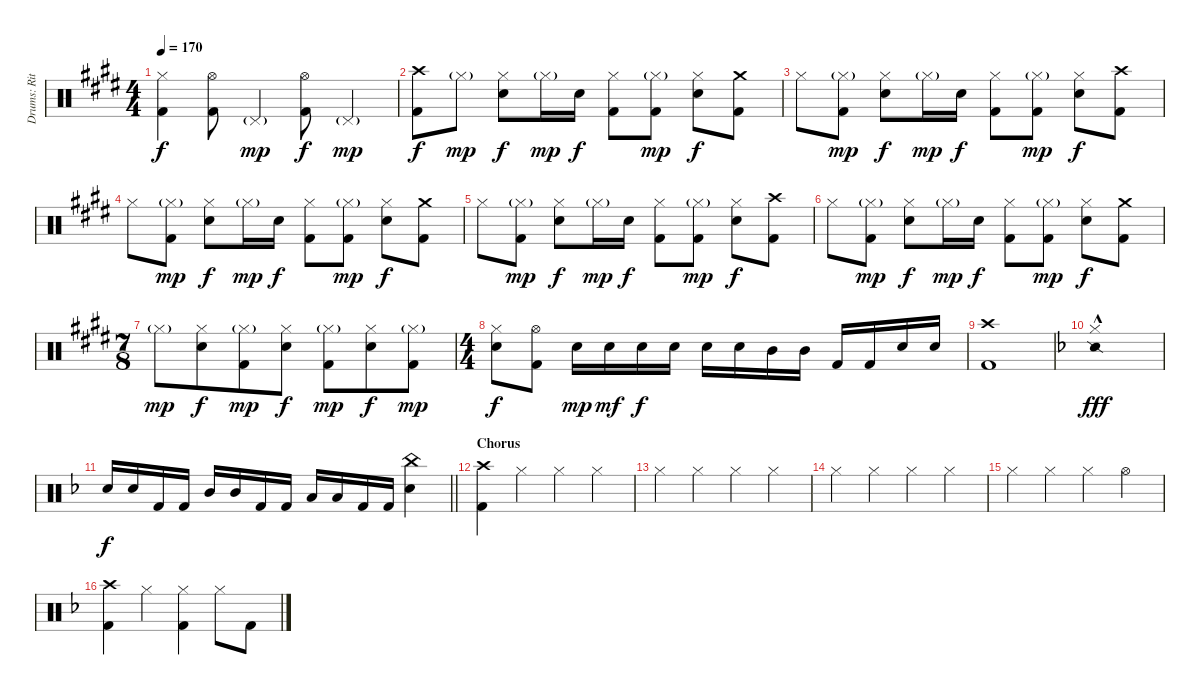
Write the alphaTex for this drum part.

\track ("Drums: Ritsu Tainaka" "Drums: Rit") {instrument percussion}
\staff {score}
\articulation defaults
\ts (4 4)
\tempo 170
\clef neutral
\ks e
("Hi-Hat (closed)" "Kick (hit) 2").4{dy f} ("Hi-Hat (open)" "Kick (hit) 2").8 "Pedal Hi-Hat (hit)"{g}.4{dy mp} ("Hi-Hat (open)" "Kick (hit) 2").8{dy f} "Pedal Hi-Hat (hit)"{g}.4{dy mp} |
("Crash high (hit)" "Kick (hit) 2").8{dy f} "Hi-Hat (closed)"{g}.8{dy mp} ("Hi-Hat (closed)" "Electric Snare (hit)").8{dy f} "Hi-Hat (closed)"{g}.16{dy mp} "Electric Snare (hit)".16{dy f} ("Hi-Hat (closed)" "Kick (hit) 2").8 ("Hi-Hat (closed)"{g} "Kick (hit) 2").8{dy mp} ("Hi-Hat (closed)" "Electric Snare (hit)").8{dy f} ("Crash medium (hit)" "Kick (hit) 2").8 |
"Hi-Hat (closed)".8 ("Hi-Hat (closed)"{g} "Kick (hit) 2").8{dy mp} ("Hi-Hat (closed)" "Electric Snare (hit)").8{dy f} "Hi-Hat (closed)"{g}.16{dy mp} "Electric Snare (hit)".16{dy f} ("Hi-Hat (closed)" "Kick (hit) 2").8 ("Hi-Hat (closed)"{g} "Kick (hit) 2").8{dy mp} ("Hi-Hat (closed)" "Electric Snare (hit)").8{dy f} ("Crash high (hit)" "Kick (hit) 2").8 |
"Hi-Hat (closed)".8 ("Hi-Hat (closed)"{g} "Kick (hit) 2").8{dy mp} ("Hi-Hat (closed)" "Electric Snare (hit)").8{dy f} "Hi-Hat (closed)"{g}.16{dy mp} "Electric Snare (hit)".16{dy f} ("Hi-Hat (closed)" "Kick (hit) 2").8 ("Hi-Hat (closed)"{g} "Kick (hit) 2").8{dy mp} ("Hi-Hat (closed)" "Electric Snare (hit)").8{dy f} ("Crash medium (hit)" "Kick (hit) 2").8 |
"Hi-Hat (closed)".8 ("Hi-Hat (closed)"{g} "Kick (hit) 2").8{dy mp} ("Hi-Hat (closed)" "Electric Snare (hit)").8{dy f} "Hi-Hat (closed)"{g}.16{dy mp} "Electric Snare (hit)".16{dy f} ("Hi-Hat (closed)" "Kick (hit) 2").8 ("Hi-Hat (closed)"{g} "Kick (hit) 2").8{dy mp} ("Hi-Hat (closed)" "Electric Snare (hit)").8{dy f} ("Crash high (hit)" "Kick (hit) 2").8 |
"Hi-Hat (closed)".8 ("Hi-Hat (closed)"{g} "Kick (hit) 2").8{dy mp} ("Hi-Hat (closed)" "Electric Snare (hit)").8{dy f} "Hi-Hat (closed)"{g}.16{dy mp} "Electric Snare (hit)".16{dy f} ("Hi-Hat (closed)" "Kick (hit) 2").8 ("Hi-Hat (closed)"{g} "Kick (hit) 2").8{dy mp} ("Hi-Hat (closed)" "Electric Snare (hit)").8{dy f} ("Crash medium (hit)" "Kick (hit) 2").8 |
\ts (7 8)
"Hi-Hat (closed)"{g}.8{dy mp} ("Hi-Hat (closed)" "Electric Snare (hit)").8{dy f} ("Hi-Hat (closed)"{g} "Kick (hit) 2").8{dy mp} ("Hi-Hat (closed)" "Electric Snare (hit)").8{dy f} ("Hi-Hat (closed)"{g} "Kick (hit) 2").8{dy mp} ("Hi-Hat (closed)" "Electric Snare (hit)").8{dy f} ("Hi-Hat (closed)"{g} "Kick (hit) 2").8{dy mp} |
\ts (4 4)
("Hi-Hat (closed)" "Electric Snare (hit)").8{dy f} ("Hi-Hat (open)" "Kick (hit) 2").8 "Electric Snare (hit)".16{dy mp} "Electric Snare (hit)".16{dy mf} "Electric Snare (hit)".16{dy f} "Electric Snare (hit)".16 "Electric Snare (hit)".16 "Electric Snare (hit)".16 "Mid Tom (hit)".16 "Mid Tom (hit)".16 "Kick (hit) 2".16 "Kick (hit) 2".16 "Electric Snare (hit)".16 "Electric Snare (hit)".16 |
("Crash high (hit)" "Kick (hit) 2").1 |
\ks f
("Snare (side stick) 2"{hac} "Hi-Hat (closed)"{hac}).1{dy fff} |
\barLineRight lightlight "Electric Snare (hit)".16{dy f} "Electric Snare (hit)".16 "Kick (hit) 2".16 "Kick (hit) 2".16 "Mid Tom (hit)".16 "Mid Tom (hit)".16 "Kick (hit) 2".16 "Kick (hit) 2".16 "Low Tom (hit)".16 "Low Tom (hit)".16 "Kick (hit) 2".16 "Kick (hit) 2".16
("China (hit)" "Electric Snare (hit)").4 |
\section ("" "Chorus")
("Crash high (hit)" "Kick (hit) 2").4 "Hi-Hat (closed)".4 "Hi-Hat (closed)".4 "Hi-Hat (closed)".4 |
"Hi-Hat (closed)".4 "Hi-Hat (closed)".4 "Hi-Hat (closed)".4 "Hi-Hat (closed)".4 |
"Hi-Hat (closed)".4 "Hi-Hat (closed)".4 "Hi-Hat (closed)".4 "Hi-Hat (closed)".4 |
"Hi-Hat (closed)".4 "Hi-Hat (closed)".4 "Hi-Hat (closed)".4 "Hi-Hat (open)".4 |
("Crash high (hit)" "Kick (hit) 2").4 "Hi-Hat (closed)".4 ("Hi-Hat (closed)" "Kick (hit) 2").4 "Hi-Hat (closed)".8 "Kick (hit) 2".8
